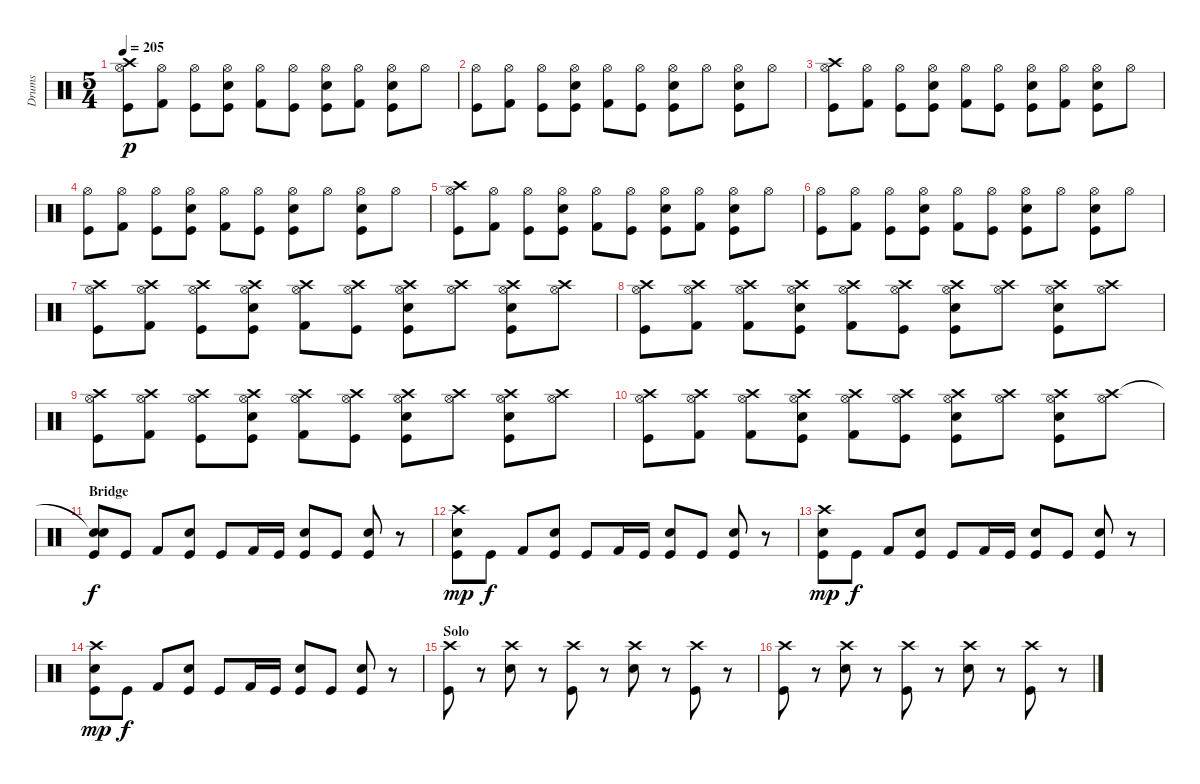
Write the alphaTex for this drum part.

\track ("Drums" "Drums") {instrument percussion}
\staff {score}
\articulation defaults
\ts (5 4)
\tempo 205
\clef neutral
\ks c
("Crash high (hit)" "Hi-Hat (open)" "Kick (hit)").8{dy p} ("Hi-Hat (open)" "Kick (hit) 2").8 ("Hi-Hat (open)" "Kick (hit)").8 ("Hi-Hat (open)" "Snare (hit) 2" "Kick (hit)").8 ("Hi-Hat (open)" "Kick (hit) 2").8 ("Hi-Hat (open)" "Kick (hit)").8 ("Hi-Hat (open)" "Snare (hit) 2" "Kick (hit)").8 ("Hi-Hat (open)" "Kick (hit) 2").8 ("Hi-Hat (open)" "Snare (hit) 2" "Kick (hit)").8 "Hi-Hat (open)".8 |
("Hi-Hat (open)" "Kick (hit)").8 ("Hi-Hat (open)" "Kick (hit) 2").8 ("Hi-Hat (open)" "Kick (hit)").8 ("Hi-Hat (open)" "Snare (hit) 2" "Kick (hit)").8 ("Hi-Hat (open)" "Kick (hit) 2").8 ("Hi-Hat (open)" "Kick (hit)").8 ("Hi-Hat (open)" "Snare (hit) 2" "Kick (hit)").8 "Hi-Hat (open)".8 ("Hi-Hat (open)" "Snare (hit) 2" "Kick (hit)").8 "Hi-Hat (open)".8 |
("Crash high (hit)" "Hi-Hat (open)" "Kick (hit)").8 ("Hi-Hat (open)" "Kick (hit) 2").8 ("Hi-Hat (open)" "Kick (hit)").8 ("Hi-Hat (open)" "Snare (hit) 2" "Kick (hit)").8 ("Hi-Hat (open)" "Kick (hit) 2").8 ("Hi-Hat (open)" "Kick (hit)").8 ("Hi-Hat (open)" "Snare (hit) 2" "Kick (hit)").8 ("Hi-Hat (open)" "Kick (hit) 2").8 ("Hi-Hat (open)" "Snare (hit) 2" "Kick (hit)").8 "Hi-Hat (open)".8 |
("Hi-Hat (open)" "Kick (hit)").8 ("Hi-Hat (open)" "Kick (hit) 2").8 ("Hi-Hat (open)" "Kick (hit)").8 ("Hi-Hat (open)" "Snare (hit) 2" "Kick (hit)").8 ("Hi-Hat (open)" "Kick (hit) 2").8 ("Hi-Hat (open)" "Kick (hit)").8 ("Hi-Hat (open)" "Snare (hit) 2" "Kick (hit)").8 "Hi-Hat (open)".8 ("Hi-Hat (open)" "Snare (hit) 2" "Kick (hit)").8 "Hi-Hat (open)".8 |
("Crash high (hit)" "Hi-Hat (open)" "Kick (hit)").8 ("Hi-Hat (open)" "Kick (hit) 2").8 ("Hi-Hat (open)" "Kick (hit)").8 ("Hi-Hat (open)" "Snare (hit) 2" "Kick (hit)").8 ("Hi-Hat (open)" "Kick (hit) 2").8 ("Hi-Hat (open)" "Kick (hit)").8 ("Hi-Hat (open)" "Snare (hit) 2" "Kick (hit)").8 ("Hi-Hat (open)" "Kick (hit) 2").8 ("Hi-Hat (open)" "Snare (hit) 2" "Kick (hit)").8 "Hi-Hat (open)".8 |
("Hi-Hat (open)" "Kick (hit)").8 ("Hi-Hat (open)" "Kick (hit) 2").8 ("Hi-Hat (open)" "Kick (hit)").8 ("Hi-Hat (open)" "Snare (hit) 2" "Kick (hit)").8 ("Hi-Hat (open)" "Kick (hit) 2").8 ("Hi-Hat (open)" "Kick (hit)").8 ("Hi-Hat (open)" "Snare (hit) 2" "Kick (hit)").8 "Hi-Hat (open)".8 ("Hi-Hat (open)" "Snare (hit) 2" "Kick (hit)").8 "Hi-Hat (open)".8 |
("Crash high (hit)" "Hi-Hat (open)" "Kick (hit)").8 ("Crash high (hit)" "Hi-Hat (open)" "Kick (hit) 2").8 ("Crash high (hit)" "Hi-Hat (open)" "Kick (hit)").8 ("Crash high (hit)" "Hi-Hat (open)" "Snare (hit) 2" "Kick (hit)").8 ("Crash high (hit)" "Hi-Hat (open)" "Kick (hit) 2").8 ("Crash high (hit)" "Hi-Hat (open)" "Kick (hit)").8 ("Crash high (hit)" "Hi-Hat (open)" "Snare (hit) 2" "Kick (hit)").8 ("Crash high (hit)" "Hi-Hat (open)").8 ("Crash high (hit)" "Hi-Hat (open)" "Snare (hit) 2" "Kick (hit)").8 ("Crash high (hit)" "Hi-Hat (open)").8 |
("Crash high (hit)" "Hi-Hat (open)" "Kick (hit)").8 ("Crash high (hit)" "Hi-Hat (open)" "Kick (hit) 2").8 ("Crash high (hit)" "Hi-Hat (open)" "Kick (hit) 2").8 ("Crash high (hit)" "Hi-Hat (open)" "Snare (hit) 2" "Kick (hit)").8 ("Crash high (hit)" "Hi-Hat (open)" "Kick (hit) 2").8 ("Crash high (hit)" "Hi-Hat (open)" "Kick (hit)").8 ("Crash high (hit)" "Hi-Hat (open)" "Snare (hit) 2" "Kick (hit)").8 ("Crash high (hit)" "Hi-Hat (open)").8 ("Crash high (hit)" "Hi-Hat (open)" "Snare (hit) 2" "Kick (hit)").8 ("Crash high (hit)" "Hi-Hat (open)").8 |
("Crash high (hit)" "Hi-Hat (open)" "Kick (hit)").8 ("Crash high (hit)" "Hi-Hat (open)" "Kick (hit) 2").8 ("Crash high (hit)" "Hi-Hat (open)" "Kick (hit)").8 ("Crash high (hit)" "Hi-Hat (open)" "Snare (hit) 2" "Kick (hit)").8 ("Crash high (hit)" "Hi-Hat (open)" "Kick (hit) 2").8 ("Crash high (hit)" "Hi-Hat (open)" "Kick (hit)").8 ("Crash high (hit)" "Hi-Hat (open)" "Snare (hit) 2" "Kick (hit)").8 ("Crash high (hit)" "Hi-Hat (open)").8 ("Crash high (hit)" "Hi-Hat (open)" "Snare (hit) 2" "Kick (hit)").8 ("Crash high (hit)" "Hi-Hat (open)").8 |
("Crash high (hit)" "Hi-Hat (open)" "Kick (hit)").8 ("Crash high (hit)" "Hi-Hat (open)" "Kick (hit) 2").8 ("Crash high (hit)" "Hi-Hat (open)" "Kick (hit) 2").8 ("Crash high (hit)" "Hi-Hat (open)" "Snare (hit) 2" "Kick (hit)").8 ("Crash high (hit)" "Hi-Hat (open)" "Kick (hit) 2").8 ("Crash high (hit)" "Hi-Hat (open)" "Kick (hit)").8 ("Crash high (hit)" "Hi-Hat (open)" "Snare (hit) 2" "Kick (hit)").8 ("Crash high (hit)" "Hi-Hat (open)").8 ("Crash high (hit)" "Hi-Hat (open)" "Snare (hit) 2" "Kick (hit)").8 ("Crash high (hit)" "Hi-Hat (open)").8 |
\section ("" "Bridge")
("Snare (hit)"{t} "Snare (hit) 2" "Kick (hit)").8{dy f} "Kick (hit)".8 "Kick (hit) 2".8 ("Snare (hit) 2" "Kick (hit)").8 "Kick (hit)".8 "Kick (hit) 2".16 "Kick (hit)".16 ("Snare (hit) 2" "Kick (hit)").8 "Kick (hit)".8 ("Snare (hit) 2" "Kick (hit)").8 r.8 |
("Crash high (hit)" "Snare (hit) 2" "Kick (hit)").8{dy mp} "Kick (hit)".8{dy f} "Kick (hit) 2".8 ("Snare (hit) 2" "Kick (hit)").8 "Kick (hit)".8 "Kick (hit) 2".16 "Kick (hit)".16 ("Snare (hit) 2" "Kick (hit)").8 "Kick (hit)".8 ("Snare (hit) 2" "Kick (hit)").8 r.8 |
("Crash high (hit)" "Snare (hit) 2" "Kick (hit)").8{dy mp} "Kick (hit)".8{dy f} "Kick (hit) 2".8 ("Snare (hit) 2" "Kick (hit)").8 "Kick (hit)".8 "Kick (hit) 2".16 "Kick (hit)".16 ("Snare (hit) 2" "Kick (hit)").8 "Kick (hit)".8 ("Snare (hit) 2" "Kick (hit)").8 r.8 |
("Crash high (hit)" "Snare (hit) 2" "Kick (hit)").8{dy mp} "Kick (hit)".8{dy f} "Kick (hit) 2".8 ("Snare (hit) 2" "Kick (hit)").8 "Kick (hit)".8 "Kick (hit) 2".16 "Kick (hit)".16 ("Snare (hit) 2" "Kick (hit)").8 "Kick (hit)".8 ("Snare (hit) 2" "Kick (hit)").8 r.8 |
\section ("" "Solo")
("Crash high (hit)" "Kick (hit)").8 r.8 ("Crash high (hit)" "Snare (hit) 2").8 r.8 ("Crash high (hit)" "Kick (hit)").8 r.8 ("Crash high (hit)" "Snare (hit) 2").8 r.8 ("Crash high (hit)" "Kick (hit)").8 r.8 |
("Crash high (hit)" "Kick (hit)").8 r.8 ("Crash high (hit)" "Snare (hit) 2").8 r.8 ("Crash high (hit)" "Kick (hit)").8 r.8 ("Crash high (hit)" "Snare (hit) 2").8 r.8 ("Crash high (hit)" "Kick (hit)").8 r.8
